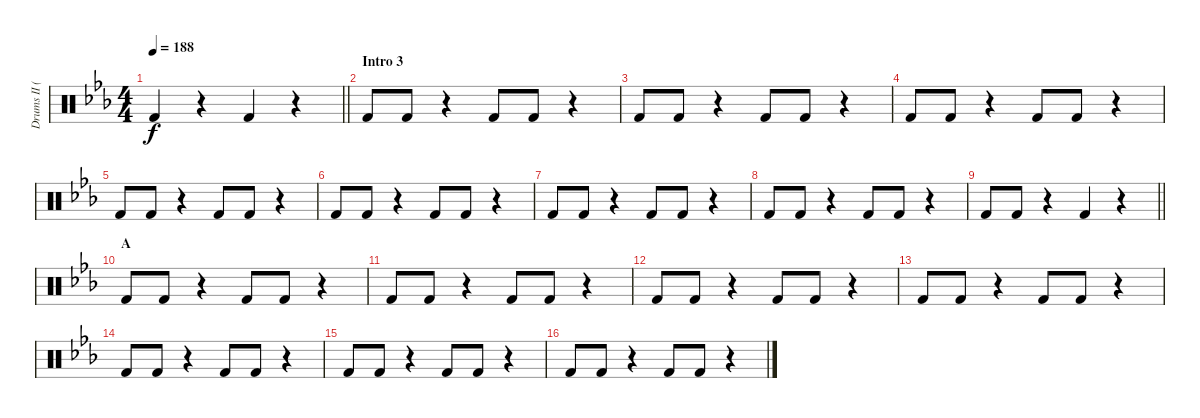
\track ("Drums II (RUKA)" "Drums II (") {instrument percussion}
\staff {score}
\articulation defaults
\ts (4 4)
\tempo 188
\clef neutral
\barLineRight lightlight
\ks eb "Kick (hit) 2".4{dy f}
r.4 "Kick (hit) 2".4 r.4 |
\section ("" "Intro 3")
"Kick (hit) 2".8 "Kick (hit) 2".8 r.4 "Kick (hit) 2".8 "Kick (hit) 2".8 r.4 |
"Kick (hit) 2".8 "Kick (hit) 2".8 r.4 "Kick (hit) 2".8 "Kick (hit) 2".8 r.4 |
"Kick (hit) 2".8 "Kick (hit) 2".8 r.4 "Kick (hit) 2".8 "Kick (hit) 2".8 r.4 |
"Kick (hit) 2".8 "Kick (hit) 2".8 r.4 "Kick (hit) 2".8 "Kick (hit) 2".8 r.4 |
"Kick (hit) 2".8 "Kick (hit) 2".8 r.4 "Kick (hit) 2".8 "Kick (hit) 2".8 r.4 |
"Kick (hit) 2".8 "Kick (hit) 2".8 r.4 "Kick (hit) 2".8 "Kick (hit) 2".8 r.4 |
"Kick (hit) 2".8 "Kick (hit) 2".8 r.4 "Kick (hit) 2".8 "Kick (hit) 2".8 r.4 |
\barLineRight lightlight "Kick (hit) 2".8 "Kick (hit) 2".8
r.4 "Kick (hit) 2".4 r.4 |
\section ("" "A")
"Kick (hit) 2".8 "Kick (hit) 2".8 r.4 "Kick (hit) 2".8 "Kick (hit) 2".8 r.4 |
"Kick (hit) 2".8 "Kick (hit) 2".8 r.4 "Kick (hit) 2".8 "Kick (hit) 2".8 r.4 |
"Kick (hit) 2".8 "Kick (hit) 2".8 r.4 "Kick (hit) 2".8 "Kick (hit) 2".8 r.4 |
"Kick (hit) 2".8 "Kick (hit) 2".8 r.4 "Kick (hit) 2".8 "Kick (hit) 2".8 r.4 |
"Kick (hit) 2".8 "Kick (hit) 2".8 r.4 "Kick (hit) 2".8 "Kick (hit) 2".8 r.4 |
"Kick (hit) 2".8 "Kick (hit) 2".8 r.4 "Kick (hit) 2".8 "Kick (hit) 2".8 r.4 |
"Kick (hit) 2".8 "Kick (hit) 2".8 r.4 "Kick (hit) 2".8 "Kick (hit) 2".8 r.4
